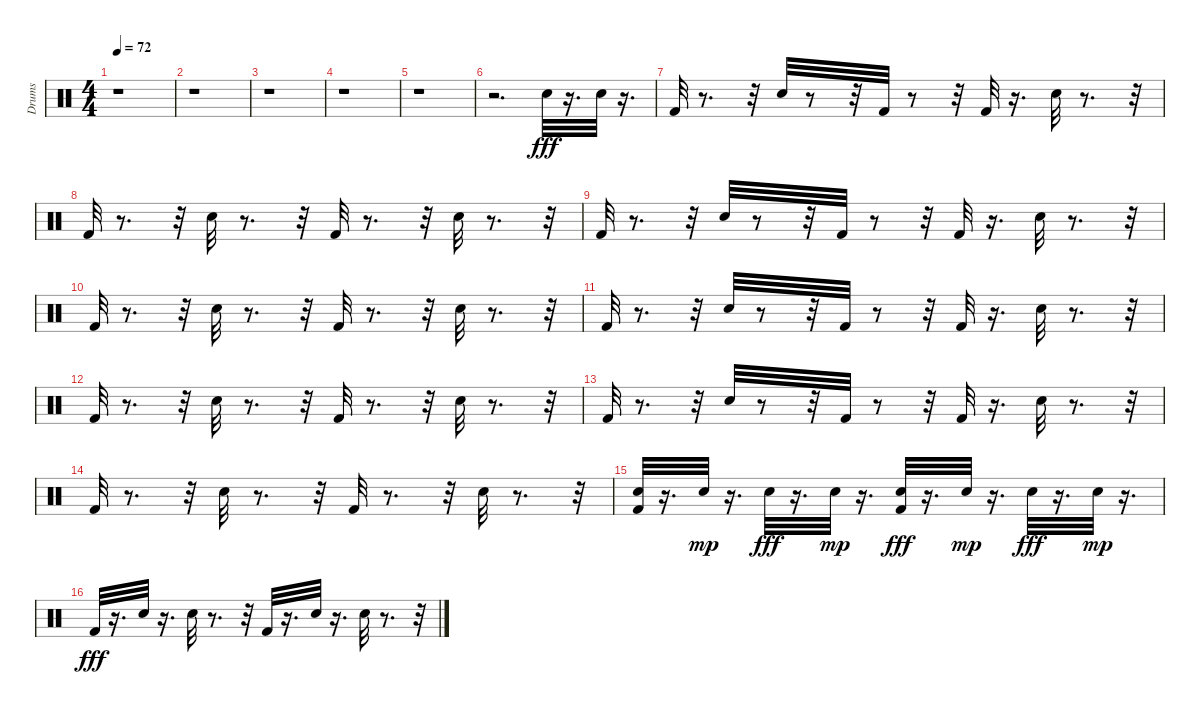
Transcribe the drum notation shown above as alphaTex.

\track ("Drums" "Drums") {instrument percussion}
\staff {score}
\articulation defaults
\ts (4 4)
\tempo 72
\clef neutral
\ks c
r.1{dy pp} |
r.1 |
r.1 |
r.1 |
r.1 |
r.2{d} "Snare (hit) 2".32{dy fff} r.16{d} "Snare (hit) 2".32 r.16{d} |
"Kick (hit) 2".32 r.8{d} r.32 "Snare (hit) 2".32 r.8 r.32 "Kick (hit) 2".32 r.8 r.32 "Kick (hit) 2".32 r.16{d} "Snare (hit) 2".32 r.8{d} r.32 |
"Kick (hit) 2".32 r.8{d} r.32 "Snare (hit) 2".32 r.8{d} r.32 "Kick (hit) 2".32 r.8{d} r.32 "Snare (hit) 2".32 r.8{d} r.32 |
"Kick (hit) 2".32 r.8{d} r.32 "Snare (hit) 2".32 r.8 r.32 "Kick (hit) 2".32 r.8 r.32 "Kick (hit) 2".32 r.16{d} "Snare (hit) 2".32 r.8{d} r.32 |
"Kick (hit) 2".32 r.8{d} r.32 "Snare (hit) 2".32 r.8{d} r.32 "Kick (hit) 2".32 r.8{d} r.32 "Snare (hit) 2".32 r.8{d} r.32 |
"Kick (hit) 2".32 r.8{d} r.32 "Snare (hit) 2".32 r.8 r.32 "Kick (hit) 2".32 r.8 r.32 "Kick (hit) 2".32 r.16{d} "Snare (hit) 2".32 r.8{d} r.32 |
"Kick (hit) 2".32 r.8{d} r.32 "Snare (hit) 2".32 r.8{d} r.32 "Kick (hit) 2".32 r.8{d} r.32 "Snare (hit) 2".32 r.8{d} r.32 |
"Kick (hit) 2".32 r.8{d} r.32 "Snare (hit) 2".32 r.8 r.32 "Kick (hit) 2".32 r.8 r.32 "Kick (hit) 2".32 r.16{d} "Snare (hit) 2".32 r.8{d} r.32 |
"Kick (hit) 2".32 r.8{d} r.32 "Snare (hit) 2".32 r.8{d} r.32 "Kick (hit) 2".32 r.8{d} r.32 "Snare (hit) 2".32 r.8{d} r.32 |
("Snare (hit) 2" "Kick (hit) 2").32 r.16{d} "Snare (hit) 2".32{dy mp} r.16{d} "Snare (hit) 2".32{dy fff} r.16{d} "Snare (hit) 2".32{dy mp} r.16{d} ("Snare (hit) 2" "Kick (hit) 2").32{dy fff} r.16{d} "Snare (hit) 2".32{dy mp} r.16{d} "Snare (hit) 2".32{dy fff} r.16{d} "Snare (hit) 2".32{dy mp} r.16{d} |
"Kick (hit) 2".32{dy fff} r.16{d} "Snare (hit) 2".32 r.16{d} "Snare (hit) 2".32 r.8{d} r.32 "Kick (hit) 2".32 r.16{d} "Snare (hit) 2".32 r.16{d} "Snare (hit) 2".32 r.8{d} r.32
